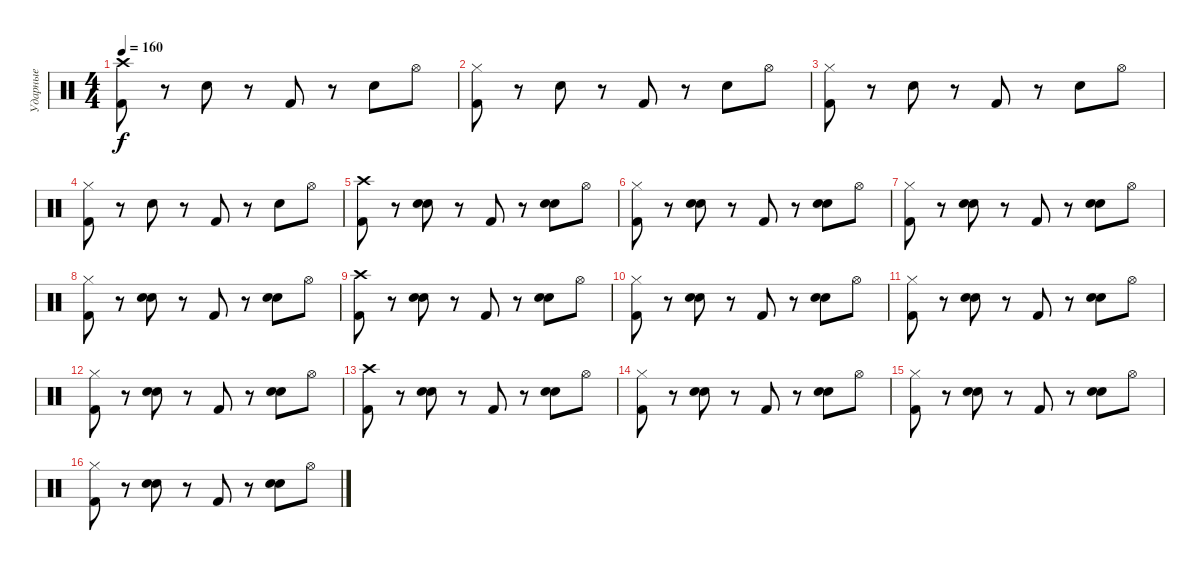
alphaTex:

\track ("Ударные" "Ударные") {instrument percussion}
\staff {score}
\articulation defaults
\ts (4 4)
\tempo 160
\clef neutral
\ks c
("Crash high (hit)" "Kick (hit) 2").8{dy f} r.8 "Electric Snare (hit)".8 r.8 "Kick (hit) 2".8 r.8 "Electric Snare (hit)".8 "Hi-Hat (open)".8 |
("Hi-Hat (closed)" "Kick (hit) 2").8 r.8 "Electric Snare (hit)".8 r.8 "Kick (hit) 2".8 r.8 "Electric Snare (hit)".8 "Hi-Hat (open)".8 |
("Hi-Hat (closed)" "Kick (hit) 2").8 r.8 "Electric Snare (hit)".8 r.8 "Kick (hit) 2".8 r.8 "Electric Snare (hit)".8 "Hi-Hat (open)".8 |
("Hi-Hat (closed)" "Kick (hit) 2").8 r.8 "Electric Snare (hit)".8 r.8 "Kick (hit) 2".8 r.8 "Electric Snare (hit)".8 "Hi-Hat (open)".8 |
("Crash high (hit)" "Kick (hit) 2").8 r.8 ("Hand Clap (hit)" "Electric Snare (hit)").8 r.8 "Kick (hit) 2".8 r.8 ("Hand Clap (hit)" "Electric Snare (hit)").8 "Hi-Hat (open)".8 |
("Hi-Hat (closed)" "Kick (hit) 2").8 r.8 ("Hand Clap (hit)" "Electric Snare (hit)").8 r.8 "Kick (hit) 2".8 r.8 ("Hand Clap (hit)" "Electric Snare (hit)").8 "Hi-Hat (open)".8 |
("Hi-Hat (closed)" "Kick (hit) 2").8 r.8 ("Hand Clap (hit)" "Electric Snare (hit)").8 r.8 "Kick (hit) 2".8 r.8 ("Hand Clap (hit)" "Electric Snare (hit)").8 "Hi-Hat (open)".8 |
("Hi-Hat (closed)" "Kick (hit) 2").8 r.8 ("Hand Clap (hit)" "Electric Snare (hit)").8 r.8 "Kick (hit) 2".8 r.8 ("Hand Clap (hit)" "Electric Snare (hit)").8 "Hi-Hat (open)".8 |
("Crash high (hit)" "Kick (hit) 2").8 r.8 ("Hand Clap (hit)" "Electric Snare (hit)").8 r.8 "Kick (hit) 2".8 r.8 ("Hand Clap (hit)" "Electric Snare (hit)").8 "Hi-Hat (open)".8 |
("Hi-Hat (closed)" "Kick (hit) 2").8 r.8 ("Hand Clap (hit)" "Electric Snare (hit)").8 r.8 "Kick (hit) 2".8 r.8 ("Hand Clap (hit)" "Electric Snare (hit)").8 "Hi-Hat (open)".8 |
("Hi-Hat (closed)" "Kick (hit) 2").8 r.8 ("Hand Clap (hit)" "Electric Snare (hit)").8 r.8 "Kick (hit) 2".8 r.8 ("Hand Clap (hit)" "Electric Snare (hit)").8 "Hi-Hat (open)".8 |
("Hi-Hat (closed)" "Kick (hit) 2").8 r.8 ("Hand Clap (hit)" "Electric Snare (hit)").8 r.8 "Kick (hit) 2".8 r.8 ("Hand Clap (hit)" "Electric Snare (hit)").8 "Hi-Hat (open)".8 |
("Crash high (hit)" "Kick (hit) 2").8 r.8 ("Hand Clap (hit)" "Electric Snare (hit)").8 r.8 "Kick (hit) 2".8 r.8 ("Hand Clap (hit)" "Electric Snare (hit)").8 "Hi-Hat (open)".8 |
("Hi-Hat (closed)" "Kick (hit) 2").8 r.8 ("Hand Clap (hit)" "Electric Snare (hit)").8 r.8 "Kick (hit) 2".8 r.8 ("Hand Clap (hit)" "Electric Snare (hit)").8 "Hi-Hat (open)".8 |
("Hi-Hat (closed)" "Kick (hit) 2").8 r.8 ("Hand Clap (hit)" "Electric Snare (hit)").8 r.8 "Kick (hit) 2".8 r.8 ("Hand Clap (hit)" "Electric Snare (hit)").8 "Hi-Hat (open)".8 |
("Hi-Hat (closed)" "Kick (hit) 2").8 r.8 ("Hand Clap (hit)" "Electric Snare (hit)").8 r.8 "Kick (hit) 2".8 r.8 ("Hand Clap (hit)" "Electric Snare (hit)").8 "Hi-Hat (open)".8
